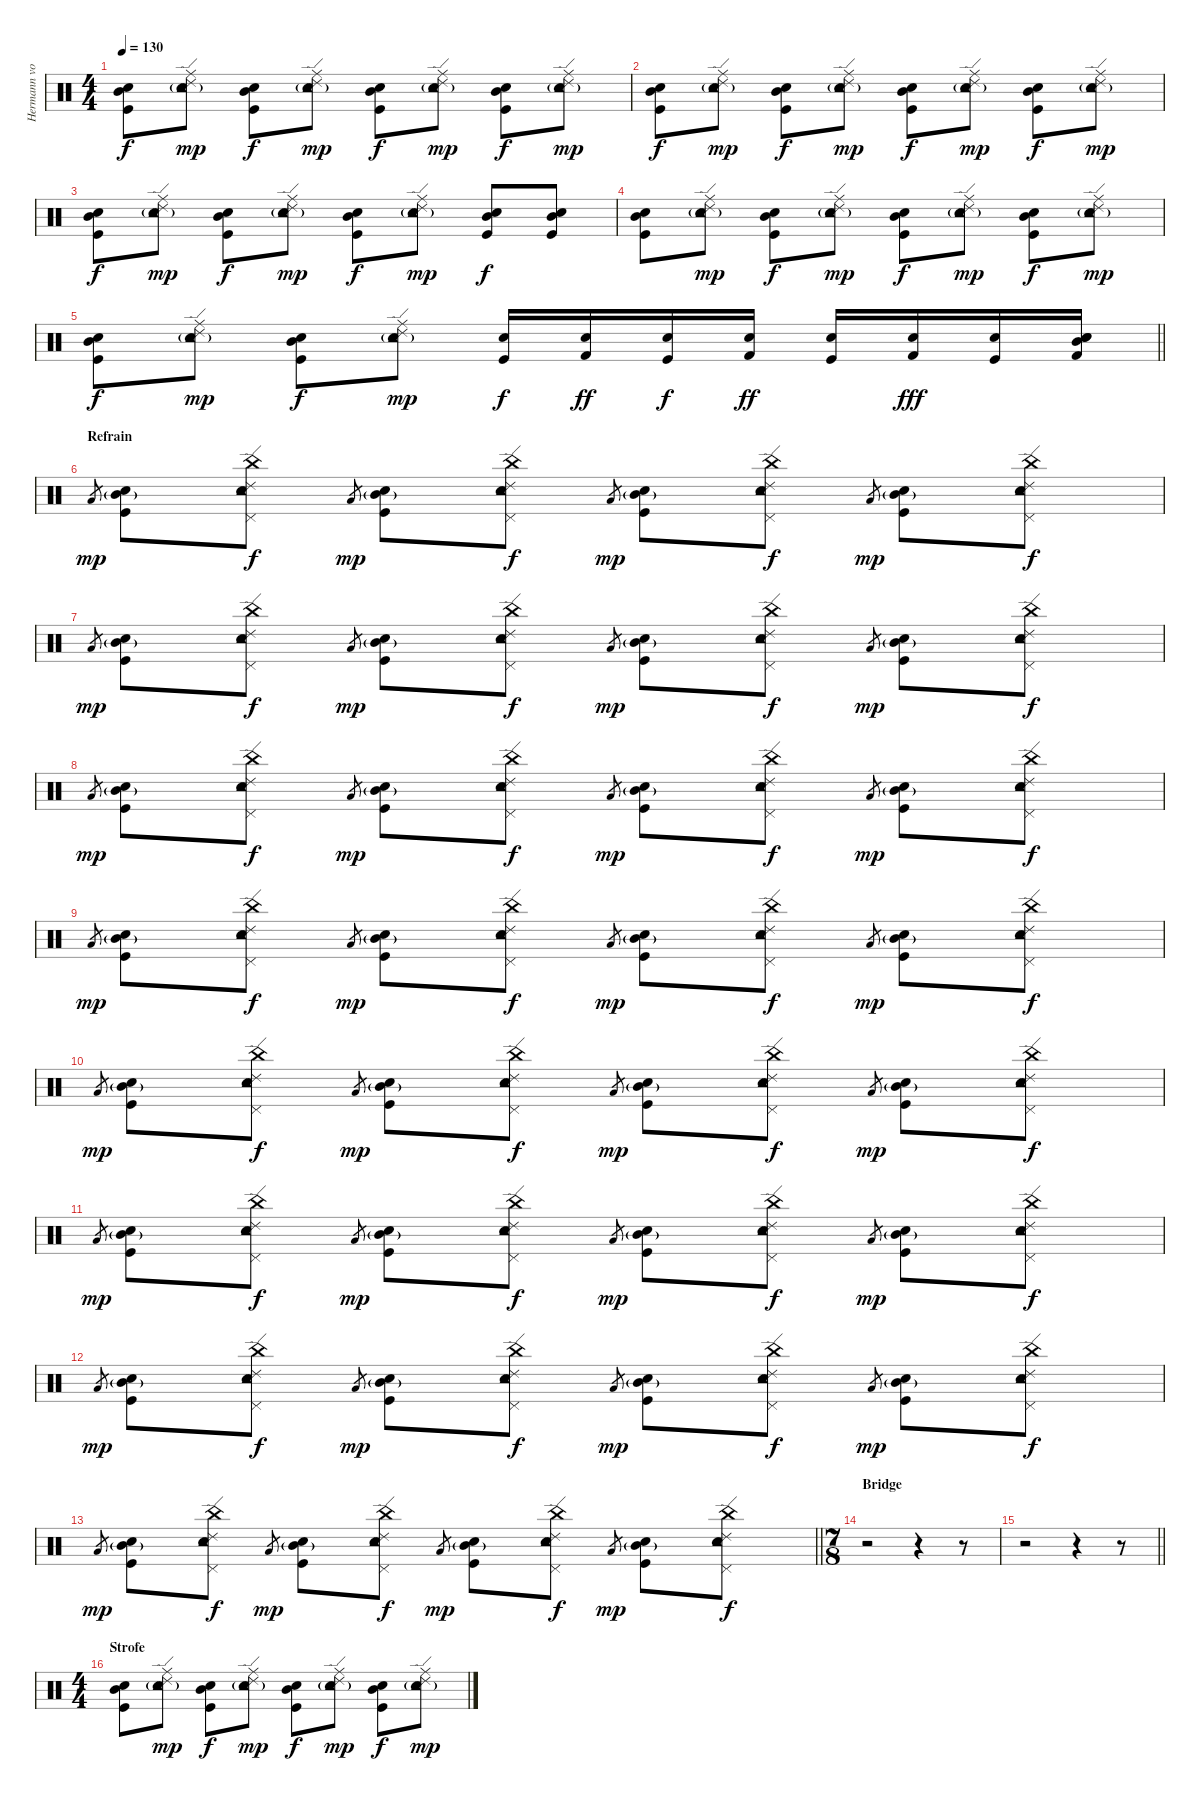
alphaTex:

\track ("Hermann von Hinten" "Hermann vo") {instrument percussion}
\staff {score}
\articulation defaults
\ts (4 4)
\tempo 130
\clef neutral
\ks c
("Kick (hit)" "Mid Tom (hit)" "Electric Snare (hit)").8{dy f} ("Ride (middle)" "Tambourine (hit)" "Ride (edge) 2" "Snare (hit) 2"{g}).8{dy mp} ("Kick (hit)" "Mid Tom (hit)" "Electric Snare (hit)").8{dy f} ("Ride (middle)" "Tambourine (hit)" "Ride (edge) 2" "Snare (hit) 2"{g}).8{dy mp} ("Kick (hit)" "Mid Tom (hit)" "Electric Snare (hit)").8{dy f} ("Ride (middle)" "Tambourine (hit)" "Ride (edge) 2" "Snare (hit) 2"{g}).8{dy mp} ("Kick (hit)" "Mid Tom (hit)" "Electric Snare (hit)").8{dy f} ("Ride (middle)" "Tambourine (hit)" "Ride (edge) 2" "Snare (hit) 2"{g}).8{dy mp} |
("Kick (hit)" "Mid Tom (hit)" "Electric Snare (hit)").8{dy f} ("Ride (middle)" "Tambourine (hit)" "Ride (edge) 2" "Snare (hit) 2"{g}).8{dy mp} ("Kick (hit)" "Mid Tom (hit)" "Electric Snare (hit)").8{dy f} ("Ride (middle)" "Tambourine (hit)" "Ride (edge) 2" "Snare (hit) 2"{g}).8{dy mp} ("Kick (hit)" "Mid Tom (hit)" "Electric Snare (hit)").8{dy f} ("Ride (middle)" "Tambourine (hit)" "Ride (edge) 2" "Snare (hit) 2"{g}).8{dy mp} ("Kick (hit)" "Mid Tom (hit)" "Electric Snare (hit)").8{dy f} ("Ride (middle)" "Tambourine (hit)" "Ride (edge) 2" "Snare (hit) 2"{g}).8{dy mp} |
("Kick (hit)" "Mid Tom (hit)" "Electric Snare (hit)").8{dy f} ("Ride (middle)" "Tambourine (hit)" "Ride (edge) 2" "Snare (hit) 2"{g}).8{dy mp} ("Kick (hit)" "Mid Tom (hit)" "Electric Snare (hit)").8{dy f} ("Ride (middle)" "Tambourine (hit)" "Ride (edge) 2" "Snare (hit) 2"{g}).8{dy mp} ("Kick (hit)" "Mid Tom (hit)" "Electric Snare (hit)").8{dy f} ("Ride (middle)" "Tambourine (hit)" "Ride (edge) 2" "Snare (hit) 2"{g}).8{dy mp} ("Kick (hit)" "Mid Tom (hit)" "Snare (hit) 2").8{dy f} ("Kick (hit)" "Mid Tom (hit)" "Electric Snare (hit)").8 |
("Kick (hit)" "Mid Tom (hit)" "Electric Snare (hit)").8 ("Ride (middle)" "Tambourine (hit)" "Ride (edge) 2" "Snare (hit) 2"{g}).8{dy mp} ("Kick (hit)" "Mid Tom (hit)" "Electric Snare (hit)").8{dy f} ("Ride (middle)" "Tambourine (hit)" "Ride (edge) 2" "Snare (hit) 2"{g}).8{dy mp} ("Kick (hit)" "Mid Tom (hit)" "Electric Snare (hit)").8{dy f} ("Ride (middle)" "Tambourine (hit)" "Ride (edge) 2" "Snare (hit) 2"{g}).8{dy mp} ("Kick (hit)" "Mid Tom (hit)" "Electric Snare (hit)").8{dy f} ("Ride (middle)" "Tambourine (hit)" "Ride (edge) 2" "Snare (hit) 2"{g}).8{dy mp} |
\barLineRight lightlight
("Kick (hit)" "Mid Tom (hit)" "Electric Snare (hit)").8{dy f} ("Ride (middle)" "Tambourine (hit)" "Ride (edge) 2" "Snare (hit) 2"{g}).8{dy mp} ("Kick (hit)" "Mid Tom (hit)" "Electric Snare (hit)").8{dy f} ("Ride (middle)" "Tambourine (hit)" "Ride (edge) 2" "Snare (hit) 2"{g}).8{dy mp} ("Kick (hit)" "Snare (hit) 2").16{dy f} ("Kick (hit) 2" "Electric Snare (hit)").16{dy ff} ("Kick (hit)" "Snare (hit) 2").16{dy f} ("Kick (hit) 2" "Electric Snare (hit)").16{dy ff} ("Kick (hit)" "Snare (hit) 2").16 ("Kick (hit) 2" "Electric Snare (hit)").16{dy fff} ("Kick (hit)" "Snare (hit) 2").16 ("Mid Tom (hit)" "Kick (hit) 2" "Electric Snare (hit)" "Snare (hit) 2").16 |
\section ("" "Refrain")
"Low Tom (hit)".8{gr dy mp} ("Mid Tom (hit)"{g} "Kick (hit)" "Snare (hit) 2").8 ("Tambourine (hit)" "Pedal Hi-Hat (hit)" "China (hit)" "Ride (edge) 2" "Electric Snare (hit)").8{dy f} "Low Tom (hit)".8{gr dy mp} ("Mid Tom (hit)"{g} "Kick (hit)" "Snare (hit) 2").8 ("Tambourine (hit)" "Pedal Hi-Hat (hit)" "China (hit)" "Ride (edge) 2" "Electric Snare (hit)").8{dy f} "Low Tom (hit)".8{gr dy mp} ("Mid Tom (hit)"{g} "Kick (hit)" "Snare (hit) 2").8 ("Tambourine (hit)" "Pedal Hi-Hat (hit)" "China (hit)" "Ride (edge) 2" "Electric Snare (hit)").8{dy f} "Low Tom (hit)".8{gr dy mp} ("Mid Tom (hit)"{g} "Kick (hit)" "Snare (hit) 2").8 ("Tambourine (hit)" "Pedal Hi-Hat (hit)" "China (hit)" "Ride (edge) 2" "Electric Snare (hit)").8{dy f} |
"Low Tom (hit)".8{gr dy mp} ("Mid Tom (hit)"{g} "Kick (hit)" "Snare (hit) 2").8 ("Tambourine (hit)" "Pedal Hi-Hat (hit)" "China (hit)" "Ride (edge) 2" "Electric Snare (hit)").8{dy f} "Low Tom (hit)".8{gr dy mp} ("Mid Tom (hit)"{g} "Kick (hit)" "Snare (hit) 2").8 ("Tambourine (hit)" "Pedal Hi-Hat (hit)" "China (hit)" "Ride (edge) 2" "Electric Snare (hit)").8{dy f} "Low Tom (hit)".8{gr dy mp} ("Mid Tom (hit)"{g} "Kick (hit)" "Snare (hit) 2").8 ("Tambourine (hit)" "Pedal Hi-Hat (hit)" "China (hit)" "Ride (edge) 2" "Electric Snare (hit)").8{dy f} "Low Tom (hit)".8{gr dy mp} ("Mid Tom (hit)"{g} "Kick (hit)" "Snare (hit) 2").8 ("Tambourine (hit)" "Pedal Hi-Hat (hit)" "China (hit)" "Ride (edge) 2" "Electric Snare (hit)").8{dy f} |
"Low Tom (hit)".8{gr dy mp} ("Mid Tom (hit)"{g} "Kick (hit)" "Snare (hit) 2").8 ("Tambourine (hit)" "Pedal Hi-Hat (hit)" "China (hit)" "Ride (edge) 2" "Electric Snare (hit)").8{dy f} "Low Tom (hit)".8{gr dy mp} ("Mid Tom (hit)"{g} "Kick (hit)" "Snare (hit) 2").8 ("Tambourine (hit)" "Pedal Hi-Hat (hit)" "China (hit)" "Ride (edge) 2" "Electric Snare (hit)").8{dy f} "Low Tom (hit)".8{gr dy mp} ("Mid Tom (hit)"{g} "Kick (hit)" "Snare (hit) 2").8 ("Tambourine (hit)" "Pedal Hi-Hat (hit)" "China (hit)" "Ride (edge) 2" "Electric Snare (hit)").8{dy f} "Low Tom (hit)".8{gr dy mp} ("Mid Tom (hit)"{g} "Kick (hit)" "Snare (hit) 2").8 ("Tambourine (hit)" "Pedal Hi-Hat (hit)" "China (hit)" "Ride (edge) 2" "Electric Snare (hit)").8{dy f} |
"Low Tom (hit)".8{gr dy mp} ("Mid Tom (hit)"{g} "Kick (hit)" "Snare (hit) 2").8 ("Tambourine (hit)" "Pedal Hi-Hat (hit)" "China (hit)" "Ride (edge) 2" "Electric Snare (hit)").8{dy f} "Low Tom (hit)".8{gr dy mp} ("Mid Tom (hit)"{g} "Kick (hit)" "Snare (hit) 2").8 ("Tambourine (hit)" "Pedal Hi-Hat (hit)" "China (hit)" "Ride (edge) 2" "Electric Snare (hit)").8{dy f} "Low Tom (hit)".8{gr dy mp} ("Mid Tom (hit)"{g} "Kick (hit)" "Snare (hit) 2").8 ("Tambourine (hit)" "Pedal Hi-Hat (hit)" "China (hit)" "Ride (edge) 2" "Electric Snare (hit)").8{dy f} "Low Tom (hit)".8{gr dy mp} ("Mid Tom (hit)"{g} "Kick (hit)" "Snare (hit) 2").8 ("Tambourine (hit)" "Pedal Hi-Hat (hit)" "China (hit)" "Ride (edge) 2" "Electric Snare (hit)").8{dy f} |
"Low Tom (hit)".8{gr dy mp} ("Mid Tom (hit)"{g} "Kick (hit)" "Snare (hit) 2").8 ("Tambourine (hit)" "Pedal Hi-Hat (hit)" "China (hit)" "Ride (edge) 2" "Electric Snare (hit)").8{dy f} "Low Tom (hit)".8{gr dy mp} ("Mid Tom (hit)"{g} "Kick (hit)" "Snare (hit) 2").8 ("Tambourine (hit)" "Pedal Hi-Hat (hit)" "China (hit)" "Ride (edge) 2" "Electric Snare (hit)").8{dy f} "Low Tom (hit)".8{gr dy mp} ("Mid Tom (hit)"{g} "Kick (hit)" "Snare (hit) 2").8 ("Tambourine (hit)" "Pedal Hi-Hat (hit)" "China (hit)" "Ride (edge) 2" "Electric Snare (hit)").8{dy f} "Low Tom (hit)".8{gr dy mp} ("Mid Tom (hit)"{g} "Kick (hit)" "Snare (hit) 2").8 ("Tambourine (hit)" "Pedal Hi-Hat (hit)" "China (hit)" "Ride (edge) 2" "Electric Snare (hit)").8{dy f} |
"Low Tom (hit)".8{gr dy mp} ("Mid Tom (hit)"{g} "Kick (hit)" "Snare (hit) 2").8 ("Tambourine (hit)" "Pedal Hi-Hat (hit)" "China (hit)" "Ride (edge) 2" "Electric Snare (hit)").8{dy f} "Low Tom (hit)".8{gr dy mp} ("Mid Tom (hit)"{g} "Kick (hit)" "Snare (hit) 2").8 ("Tambourine (hit)" "Pedal Hi-Hat (hit)" "China (hit)" "Ride (edge) 2" "Electric Snare (hit)").8{dy f} "Low Tom (hit)".8{gr dy mp} ("Mid Tom (hit)"{g} "Kick (hit)" "Snare (hit) 2").8 ("Tambourine (hit)" "Pedal Hi-Hat (hit)" "China (hit)" "Ride (edge) 2" "Electric Snare (hit)").8{dy f} "Low Tom (hit)".8{gr dy mp} ("Mid Tom (hit)"{g} "Kick (hit)" "Snare (hit) 2").8 ("Tambourine (hit)" "Pedal Hi-Hat (hit)" "China (hit)" "Ride (edge) 2" "Electric Snare (hit)").8{dy f} |
"Low Tom (hit)".8{gr dy mp} ("Mid Tom (hit)"{g} "Kick (hit)" "Snare (hit) 2").8 ("Tambourine (hit)" "Pedal Hi-Hat (hit)" "China (hit)" "Ride (edge) 2" "Electric Snare (hit)").8{dy f} "Low Tom (hit)".8{gr dy mp} ("Mid Tom (hit)"{g} "Kick (hit)" "Snare (hit) 2").8 ("Tambourine (hit)" "Pedal Hi-Hat (hit)" "China (hit)" "Ride (edge) 2" "Electric Snare (hit)").8{dy f} "Low Tom (hit)".8{gr dy mp} ("Mid Tom (hit)"{g} "Kick (hit)" "Snare (hit) 2").8 ("Tambourine (hit)" "Pedal Hi-Hat (hit)" "China (hit)" "Ride (edge) 2" "Electric Snare (hit)").8{dy f} "Low Tom (hit)".8{gr dy mp} ("Mid Tom (hit)"{g} "Kick (hit)" "Snare (hit) 2").8 ("Tambourine (hit)" "Pedal Hi-Hat (hit)" "China (hit)" "Ride (edge) 2" "Electric Snare (hit)").8{dy f} |
\barLineRight lightlight "Low Tom (hit)".8{gr dy mp}
("Mid Tom (hit)"{g} "Kick (hit)" "Snare (hit) 2").8 ("Tambourine (hit)" "Pedal Hi-Hat (hit)" "China (hit)" "Ride (edge) 2" "Electric Snare (hit)").8{dy f} "Low Tom (hit)".8{gr dy mp} ("Mid Tom (hit)"{g} "Kick (hit)" "Snare (hit) 2").8 ("Tambourine (hit)" "Pedal Hi-Hat (hit)" "China (hit)" "Ride (edge) 2" "Electric Snare (hit)").8{dy f} "Low Tom (hit)".8{gr dy mp} ("Mid Tom (hit)"{g} "Kick (hit)" "Snare (hit) 2").8 ("Tambourine (hit)" "Pedal Hi-Hat (hit)" "China (hit)" "Ride (edge) 2" "Electric Snare (hit)").8{dy f} "Low Tom (hit)".8{gr dy mp} ("Mid Tom (hit)"{g} "Kick (hit)" "Snare (hit) 2").8 ("Tambourine (hit)" "Pedal Hi-Hat (hit)" "China (hit)" "Ride (edge) 2" "Electric Snare (hit)").8{dy f} |
\ts (7 8)
\section ("" "Bridge")
r.2 r.4 r.8 |
\barLineRight lightlight
r.2 r.4 r.8 |
\ts (4 4)
\section ("" "Strofe")
("Kick (hit)" "Mid Tom (hit)" "Electric Snare (hit)").8 ("Ride (middle)" "Tambourine (hit)" "Ride (edge) 2" "Snare (hit) 2"{g}).8{dy mp} ("Kick (hit)" "Mid Tom (hit)" "Electric Snare (hit)").8{dy f} ("Ride (middle)" "Tambourine (hit)" "Ride (edge) 2" "Snare (hit) 2"{g}).8{dy mp} ("Kick (hit)" "Mid Tom (hit)" "Electric Snare (hit)").8{dy f} ("Ride (middle)" "Tambourine (hit)" "Ride (edge) 2" "Snare (hit) 2"{g}).8{dy mp} ("Kick (hit)" "Mid Tom (hit)" "Electric Snare (hit)").8{dy f} ("Ride (middle)" "Tambourine (hit)" "Ride (edge) 2" "Snare (hit) 2"{g}).8{dy mp}
